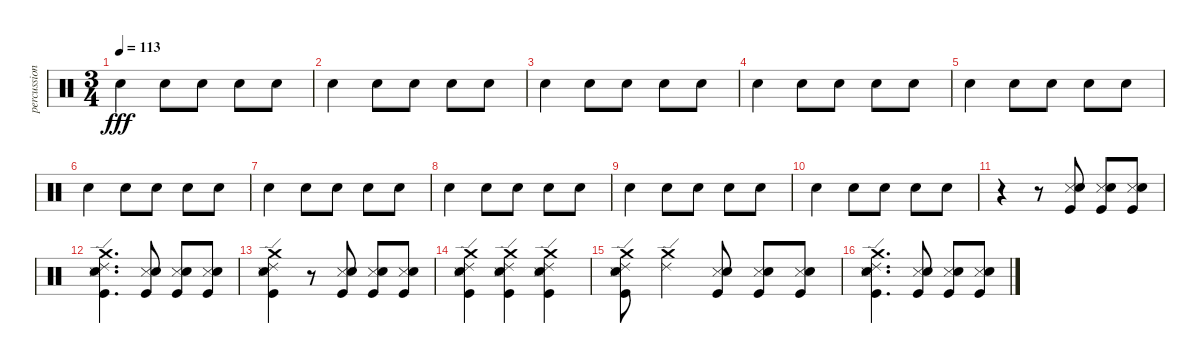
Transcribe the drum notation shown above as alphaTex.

\track ("percussion" "percussion") {instrument percussion}
\staff {score}
\articulation defaults
\ts (3 4)
\tempo 113
\clef neutral
\ks c "Electric Snare (hit)".4{dy fff} "Electric Snare (hit)".8 "Electric Snare (hit)".8 "Electric Snare (hit)".8 "Electric Snare (hit)".8
|
"Electric Snare (hit)".4 "Electric Snare (hit)".8 "Electric Snare (hit)".8 "Electric Snare (hit)".8 "Electric Snare (hit)".8 |
"Electric Snare (hit)".4 "Electric Snare (hit)".8 "Electric Snare (hit)".8 "Electric Snare (hit)".8 "Electric Snare (hit)".8 |
"Electric Snare (hit)".4 "Electric Snare (hit)".8 "Electric Snare (hit)".8 "Electric Snare (hit)".8 "Electric Snare (hit)".8 |
"Electric Snare (hit)".4 "Electric Snare (hit)".8 "Electric Snare (hit)".8 "Electric Snare (hit)".8 "Electric Snare (hit)".8 |
"Electric Snare (hit)".4 "Electric Snare (hit)".8 "Electric Snare (hit)".8 "Electric Snare (hit)".8 "Electric Snare (hit)".8 |
"Electric Snare (hit)".4 "Electric Snare (hit)".8 "Electric Snare (hit)".8 "Electric Snare (hit)".8 "Electric Snare (hit)".8 |
"Electric Snare (hit)".4 "Electric Snare (hit)".8 "Electric Snare (hit)".8 "Electric Snare (hit)".8 "Electric Snare (hit)".8 |
"Electric Snare (hit)".4 "Electric Snare (hit)".8 "Electric Snare (hit)".8 "Electric Snare (hit)".8 "Electric Snare (hit)".8 |
"Electric Snare (hit)".4 "Electric Snare (hit)".8 "Electric Snare (hit)".8 "Electric Snare (hit)".8 "Electric Snare (hit)".8 |
r.4 r.8 ("Metronome (hit)" "Electric Snare (hit)" "Kick (hit)").8 ("Metronome (hit)" "Electric Snare (hit)" "Kick (hit)").8 ("Metronome (hit)" "Electric Snare (hit)" "Kick (hit)").8 |
("Ride (edge) 2" "Crash medium (hit)" "Metronome (hit)" "Electric Snare (hit)" "Kick (hit)").4{d} ("Metronome (hit)" "Electric Snare (hit)" "Kick (hit)").8 ("Metronome (hit)" "Electric Snare (hit)" "Kick (hit)").8 ("Metronome (hit)" "Electric Snare (hit)" "Kick (hit)").8 |
("Ride (edge) 2" "Crash medium (hit)" "Metronome (hit)" "Electric Snare (hit)" "Kick (hit)").4 r.8 ("Metronome (hit)" "Electric Snare (hit)" "Kick (hit)").8 ("Metronome (hit)" "Electric Snare (hit)" "Kick (hit)").8 ("Metronome (hit)" "Electric Snare (hit)" "Kick (hit)").8 |
("Ride (edge) 2" "Crash medium (hit)" "Metronome (hit)" "Electric Snare (hit)" "Kick (hit)").4 ("Ride (edge) 2" "Crash medium (hit)" "Metronome (hit)" "Electric Snare (hit)" "Kick (hit)").4 ("Ride (edge) 2" "Crash medium (hit)" "Metronome (hit)" "Electric Snare (hit)" "Kick (hit)").4 |
("Ride (edge) 2" "Crash medium (hit)" "Metronome (hit)" "Electric Snare (hit)" "Kick (hit)").8 ("Ride (edge) 2" "Crash medium (hit)").4 ("Metronome (hit)" "Electric Snare (hit)" "Kick (hit)").8 ("Metronome (hit)" "Electric Snare (hit)" "Kick (hit)").8 ("Metronome (hit)" "Electric Snare (hit)" "Kick (hit)").8 |
("Ride (edge) 2" "Crash medium (hit)" "Metronome (hit)" "Electric Snare (hit)" "Kick (hit)").4{d} ("Metronome (hit)" "Electric Snare (hit)" "Kick (hit)").8 ("Metronome (hit)" "Electric Snare (hit)" "Kick (hit)").8 ("Metronome (hit)" "Electric Snare (hit)" "Kick (hit)").8
